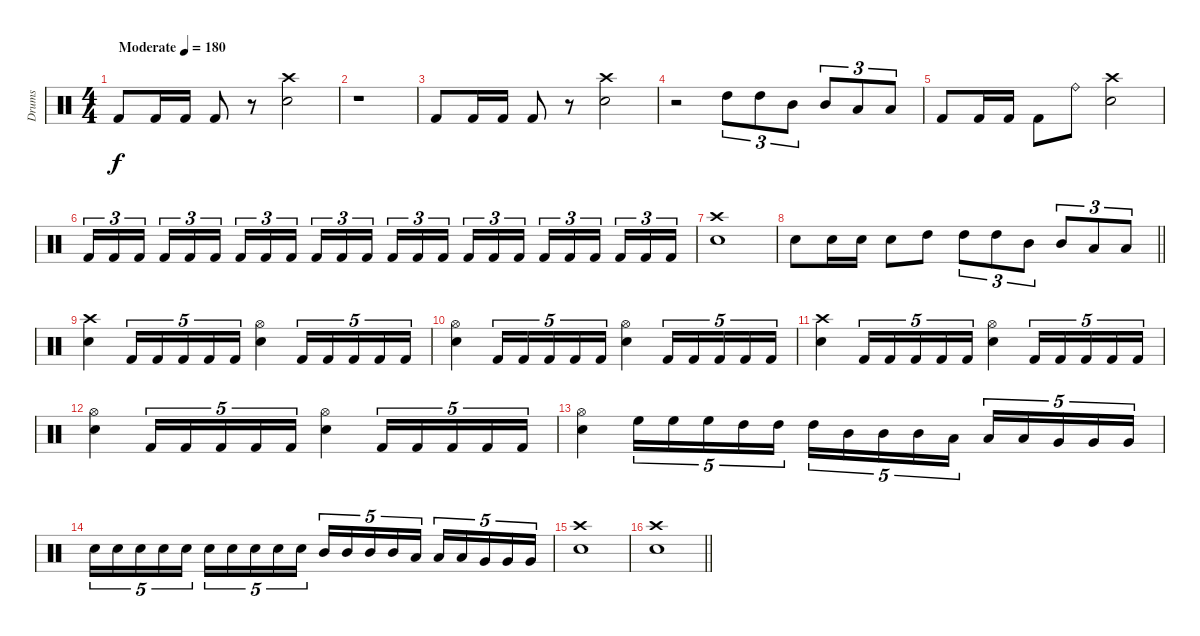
\track ("Drums" "Drums") {instrument percussion}
\staff {score}
\articulation defaults
\ts (4 4)
\tempo (180 "Moderate")
\clef neutral
\ks c "Kick (hit) 2".8{dy f} "Kick (hit) 2".16 "Kick (hit) 2".16 "Kick (hit) 2".8
r.8 ("Snare (hit) 2" "Crash high (hit)").2 |
r.1 |
"Kick (hit) 2".8 "Kick (hit) 2".16 "Kick (hit) 2".16 "Kick (hit) 2".8 r.8 ("Snare (hit) 2" "Crash high (hit)").2 |
r.2 "High Tom (hit)".8{tu (3 2)} "High Tom (hit)".8{tu (3 2)} "Mid Tom (hit)".8{tu (3 2)} "Mid Tom (hit)".8{tu (3 2)} "Low Tom (hit)".8{tu (3 2)} "Low Tom (hit)".8{tu (3 2)} |
"Kick (hit) 2".8 "Kick (hit) 2".16 "Kick (hit) 2".16 "Kick (hit) 2".8 "Ride (bell)".8 ("Snare (hit) 2" "Crash high (hit)").2 |
"Kick (hit) 2".16{tu (3 2)} "Kick (hit) 2".16{tu (3 2)} "Kick (hit) 2".16{tu (3 2) beam splitsecondary} "Kick (hit) 2".16{tu (3 2)} "Kick (hit) 2".16{tu (3 2)} "Kick (hit) 2".16{tu (3 2)} "Kick (hit) 2".16{tu (3 2)} "Kick (hit) 2".16{tu (3 2)} "Kick (hit) 2".16{tu (3 2) beam splitsecondary} "Kick (hit) 2".16{tu (3 2)} "Kick (hit) 2".16{tu (3 2)} "Kick (hit) 2".16{tu (3 2)} "Kick (hit) 2".16{tu (3 2)} "Kick (hit) 2".16{tu (3 2)} "Kick (hit) 2".16{tu (3 2) beam splitsecondary} "Kick (hit) 2".16{tu (3 2)} "Kick (hit) 2".16{tu (3 2)} "Kick (hit) 2".16{tu (3 2)} "Kick (hit) 2".16{tu (3 2)} "Kick (hit) 2".16{tu (3 2)} "Kick (hit) 2".16{tu (3 2) beam splitsecondary} "Kick (hit) 2".16{tu (3 2)} "Kick (hit) 2".16{tu (3 2)} "Kick (hit) 2".16{tu (3 2)} |
("Snare (hit) 2" "Crash high (hit)").1 |
\barLineRight lightlight "Snare (hit) 2".8 "Snare (hit) 2".16 "Snare (hit) 2".16 "Snare (hit) 2".8 "High Tom (hit)".8 "High Tom (hit)".8{tu (3 2)} "High Tom (hit)".8{tu (3 2)} "Mid Tom (hit)".8{tu (3 2)} "Mid Tom (hit)".8{tu (3 2)} "Low Tom (hit)".8{tu (3 2)} "Low Tom (hit)".8{tu (3 2)}
|
("Snare (hit) 2" "Crash high (hit)").4 "Kick (hit) 2".16{tu (5 4)} "Kick (hit) 2".16{tu (5 4)} "Kick (hit) 2".16{tu (5 4)} "Kick (hit) 2".16{tu (5 4)} "Kick (hit) 2".16{tu (5 4)} ("Snare (hit) 2" "Hi-Hat (open)").4 "Kick (hit) 2".16{tu (5 4)} "Kick (hit) 2".16{tu (5 4)} "Kick (hit) 2".16{tu (5 4)} "Kick (hit) 2".16{tu (5 4)} "Kick (hit) 2".16{tu (5 4)} |
("Snare (hit) 2" "Hi-Hat (open)").4 "Kick (hit) 2".16{tu (5 4)} "Kick (hit) 2".16{tu (5 4)} "Kick (hit) 2".16{tu (5 4)} "Kick (hit) 2".16{tu (5 4)} "Kick (hit) 2".16{tu (5 4)} ("Snare (hit) 2" "Hi-Hat (open)").4 "Kick (hit) 2".16{tu (5 4)} "Kick (hit) 2".16{tu (5 4)} "Kick (hit) 2".16{tu (5 4)} "Kick (hit) 2".16{tu (5 4)} "Kick (hit) 2".16{tu (5 4)} |
("Snare (hit) 2" "Crash high (hit)").4 "Kick (hit) 2".16{tu (5 4)} "Kick (hit) 2".16{tu (5 4)} "Kick (hit) 2".16{tu (5 4)} "Kick (hit) 2".16{tu (5 4)} "Kick (hit) 2".16{tu (5 4)} ("Snare (hit) 2" "Hi-Hat (open)").4 "Kick (hit) 2".16{tu (5 4)} "Kick (hit) 2".16{tu (5 4)} "Kick (hit) 2".16{tu (5 4)} "Kick (hit) 2".16{tu (5 4)} "Kick (hit) 2".16{tu (5 4)} |
("Snare (hit) 2" "Hi-Hat (open)").4 "Kick (hit) 2".16{tu (5 4)} "Kick (hit) 2".16{tu (5 4)} "Kick (hit) 2".16{tu (5 4)} "Kick (hit) 2".16{tu (5 4)} "Kick (hit) 2".16{tu (5 4)} ("Snare (hit) 2" "Hi-Hat (open)").4 "Kick (hit) 2".16{tu (5 4)} "Kick (hit) 2".16{tu (5 4)} "Kick (hit) 2".16{tu (5 4)} "Kick (hit) 2".16{tu (5 4)} "Kick (hit) 2".16{tu (5 4)} |
("Snare (hit) 2" "Hi-Hat (open)").4 "High Floor Tom (hit)".16{tu (5 4)} "High Floor Tom (hit)".16{tu (5 4)} "High Floor Tom (hit)".16{tu (5 4)} "High Tom (hit)".16{tu (5 4)} "High Tom (hit)".16{tu (5 4)} "High Tom (hit)".16{tu (5 4)} "Mid Tom (hit)".16{tu (5 4)} "Mid Tom (hit)".16{tu (5 4)} "Mid Tom (hit)".16{tu (5 4)} "Low Tom (hit)".16{tu (5 4)} "Low Tom (hit)".16{tu (5 4)} "Low Tom (hit)".16{tu (5 4)} "Very Low Tom (hit)".16{tu (5 4)} "Very Low Tom (hit)".16{tu (5 4)} "Very Low Tom (hit)".16{tu (5 4)} |
"Snare (hit) 2".16{tu (5 4)} "Snare (hit) 2".16{tu (5 4)} "Snare (hit) 2".16{tu (5 4)} "Snare (hit) 2".16{tu (5 4)} "Snare (hit) 2".16{tu (5 4)} "Snare (hit) 2".16{tu (5 4)} "Snare (hit) 2".16{tu (5 4)} "Snare (hit) 2".16{tu (5 4)} "Snare (hit) 2".16{tu (5 4)} "Snare (hit) 2".16{tu (5 4)} "Mid Tom (hit)".16{tu (5 4)} "Mid Tom (hit)".16{tu (5 4)} "Mid Tom (hit)".16{tu (5 4)} "Mid Tom (hit)".16{tu (5 4)} "Low Tom (hit)".16{tu (5 4)} "Low Tom (hit)".16{tu (5 4)} "Low Tom (hit)".16{tu (5 4)} "Very Low Tom (hit)".16{tu (5 4)} "Very Low Tom (hit)".16{tu (5 4)} "Very Low Tom (hit)".16{tu (5 4)} |
("Snare (hit) 2" "Crash high (hit)").1 |
\barLineRight lightlight
("Snare (hit) 2" "Crash high (hit)").1
